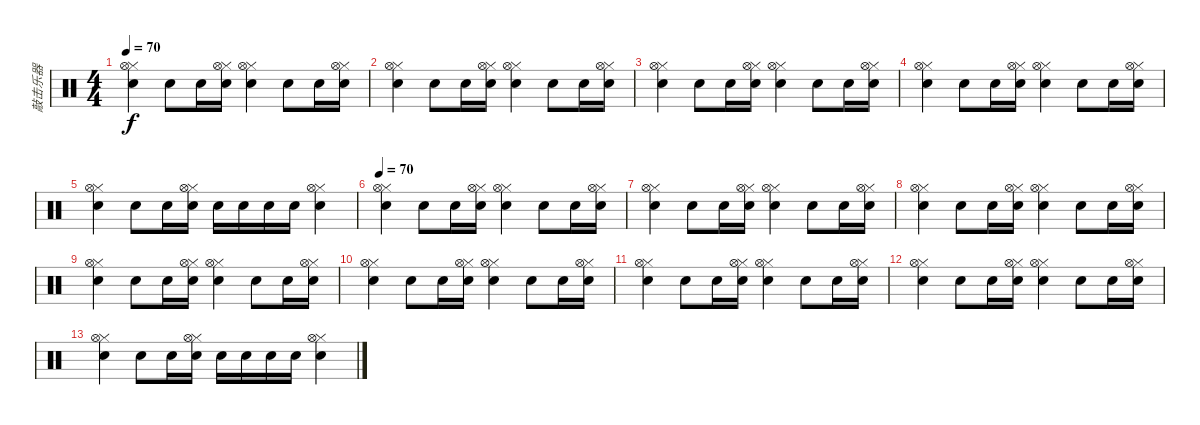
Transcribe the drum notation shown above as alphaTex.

\track ("敲击乐器" "敲击乐器") {instrument percussion}
\staff {score}
\articulation defaults
\ts (4 4)
\tempo 70
\clef neutral
\ks c
("Electric Snare (hit)" "Hi-Hat (closed)" "Hi-Hat (open)").4{dy f} "Snare (hit) 2".8 "Snare (hit) 2".16 ("Electric Snare (hit)" "Hi-Hat (closed)" "Hi-Hat (open)").16 ("Electric Snare (hit)" "Hi-Hat (closed)" "Hi-Hat (open)").4 "Snare (hit) 2".8 "Snare (hit) 2".16 ("Electric Snare (hit)" "Hi-Hat (closed)" "Hi-Hat (open)").16 |
("Electric Snare (hit)" "Hi-Hat (closed)" "Hi-Hat (open)").4 "Snare (hit) 2".8 "Snare (hit) 2".16 ("Electric Snare (hit)" "Hi-Hat (closed)" "Hi-Hat (open)").16 ("Electric Snare (hit)" "Hi-Hat (closed)" "Hi-Hat (open)").4 "Snare (hit) 2".8 "Snare (hit) 2".16 ("Electric Snare (hit)" "Hi-Hat (closed)" "Hi-Hat (open)").16 |
("Electric Snare (hit)" "Hi-Hat (closed)" "Hi-Hat (open)").4 "Snare (hit) 2".8 "Snare (hit) 2".16 ("Electric Snare (hit)" "Hi-Hat (closed)" "Hi-Hat (open)").16 ("Electric Snare (hit)" "Hi-Hat (closed)" "Hi-Hat (open)").4 "Snare (hit) 2".8 "Snare (hit) 2".16 ("Electric Snare (hit)" "Hi-Hat (closed)" "Hi-Hat (open)").16 |
("Electric Snare (hit)" "Hi-Hat (closed)" "Hi-Hat (open)").4 "Snare (hit) 2".8 "Snare (hit) 2".16 ("Electric Snare (hit)" "Hi-Hat (closed)" "Hi-Hat (open)").16 ("Electric Snare (hit)" "Hi-Hat (closed)" "Hi-Hat (open)").4 "Snare (hit) 2".8 "Snare (hit) 2".16 ("Electric Snare (hit)" "Hi-Hat (closed)" "Hi-Hat (open)").16 |
("Electric Snare (hit)" "Hi-Hat (closed)" "Hi-Hat (open)").4 "Snare (hit) 2".8 "Snare (hit) 2".16 ("Electric Snare (hit)" "Hi-Hat (closed)" "Hi-Hat (open)").16 "Snare (hit) 2".16 "Snare (hit) 2".16 "Snare (hit) 2".16 "Snare (hit) 2".16 ("Electric Snare (hit)" "Hi-Hat (closed)" "Hi-Hat (open)").4 |
\tempo 70
("Electric Snare (hit)" "Hi-Hat (closed)" "Hi-Hat (open)").4 "Snare (hit) 2".8 "Snare (hit) 2".16 ("Electric Snare (hit)" "Hi-Hat (closed)" "Hi-Hat (open)").16 ("Electric Snare (hit)" "Hi-Hat (closed)" "Hi-Hat (open)").4 "Snare (hit) 2".8 "Snare (hit) 2".16 ("Electric Snare (hit)" "Hi-Hat (closed)" "Hi-Hat (open)").16 |
("Electric Snare (hit)" "Hi-Hat (closed)" "Hi-Hat (open)").4 "Snare (hit) 2".8 "Snare (hit) 2".16 ("Electric Snare (hit)" "Hi-Hat (closed)" "Hi-Hat (open)").16 ("Electric Snare (hit)" "Hi-Hat (closed)" "Hi-Hat (open)").4 "Snare (hit) 2".8 "Snare (hit) 2".16 ("Electric Snare (hit)" "Hi-Hat (closed)" "Hi-Hat (open)").16 |
("Electric Snare (hit)" "Hi-Hat (closed)" "Hi-Hat (open)").4 "Snare (hit) 2".8 "Snare (hit) 2".16 ("Electric Snare (hit)" "Hi-Hat (closed)" "Hi-Hat (open)").16 ("Electric Snare (hit)" "Hi-Hat (closed)" "Hi-Hat (open)").4 "Snare (hit) 2".8 "Snare (hit) 2".16 ("Electric Snare (hit)" "Hi-Hat (closed)" "Hi-Hat (open)").16 |
("Electric Snare (hit)" "Hi-Hat (closed)" "Hi-Hat (open)").4 "Snare (hit) 2".8 "Snare (hit) 2".16 ("Electric Snare (hit)" "Hi-Hat (closed)" "Hi-Hat (open)").16 ("Electric Snare (hit)" "Hi-Hat (closed)" "Hi-Hat (open)").4 "Snare (hit) 2".8 "Snare (hit) 2".16 ("Electric Snare (hit)" "Hi-Hat (closed)" "Hi-Hat (open)").16 |
("Electric Snare (hit)" "Hi-Hat (closed)" "Hi-Hat (open)").4 "Snare (hit) 2".8 "Snare (hit) 2".16 ("Electric Snare (hit)" "Hi-Hat (closed)" "Hi-Hat (open)").16 ("Electric Snare (hit)" "Hi-Hat (closed)" "Hi-Hat (open)").4 "Snare (hit) 2".8 "Snare (hit) 2".16 ("Electric Snare (hit)" "Hi-Hat (closed)" "Hi-Hat (open)").16 |
("Electric Snare (hit)" "Hi-Hat (closed)" "Hi-Hat (open)").4 "Snare (hit) 2".8 "Snare (hit) 2".16 ("Electric Snare (hit)" "Hi-Hat (closed)" "Hi-Hat (open)").16 ("Electric Snare (hit)" "Hi-Hat (closed)" "Hi-Hat (open)").4 "Snare (hit) 2".8 "Snare (hit) 2".16 ("Electric Snare (hit)" "Hi-Hat (closed)" "Hi-Hat (open)").16 |
("Electric Snare (hit)" "Hi-Hat (closed)" "Hi-Hat (open)").4 "Snare (hit) 2".8 "Snare (hit) 2".16 ("Electric Snare (hit)" "Hi-Hat (closed)" "Hi-Hat (open)").16 ("Electric Snare (hit)" "Hi-Hat (closed)" "Hi-Hat (open)").4 "Snare (hit) 2".8 "Snare (hit) 2".16 ("Electric Snare (hit)" "Hi-Hat (closed)" "Hi-Hat (open)").16 |
("Electric Snare (hit)" "Hi-Hat (closed)" "Hi-Hat (open)").4 "Snare (hit) 2".8 "Snare (hit) 2".16 ("Electric Snare (hit)" "Hi-Hat (closed)" "Hi-Hat (open)").16 "Snare (hit) 2".16 "Snare (hit) 2".16 "Snare (hit) 2".16 "Snare (hit) 2".16 ("Electric Snare (hit)" "Hi-Hat (closed)" "Hi-Hat (open)").4
